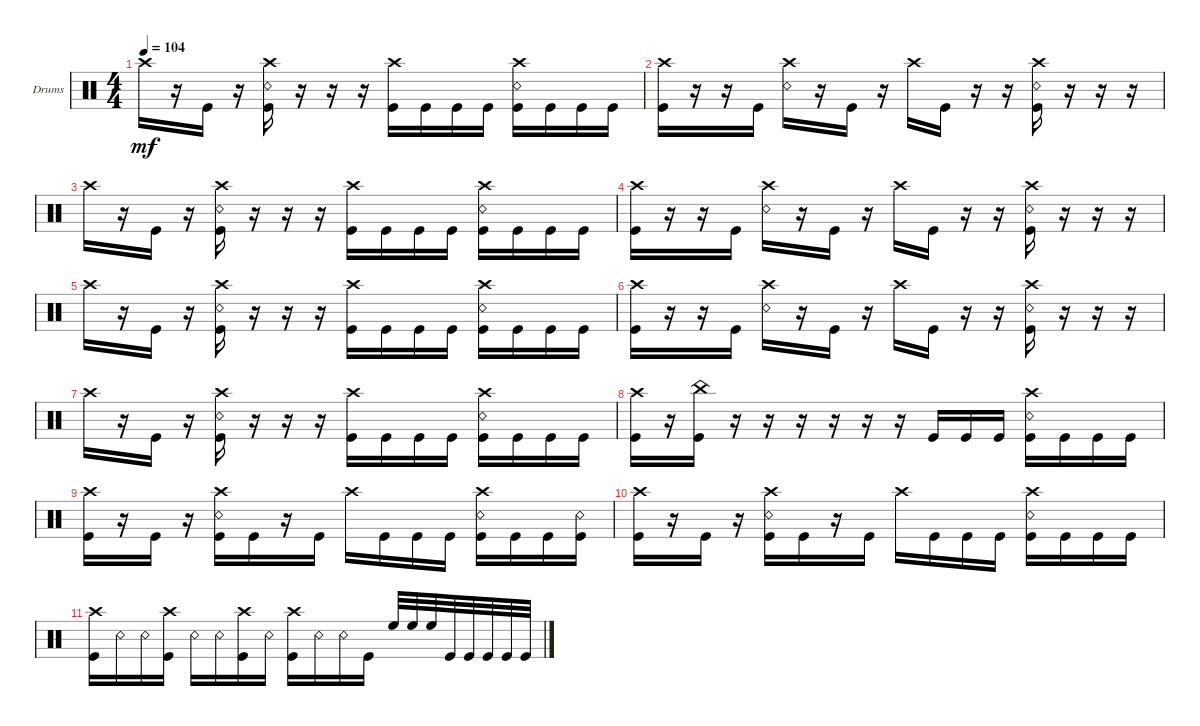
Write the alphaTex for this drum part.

\defaultSystemsLayout 4
\bracketExtendMode groupsimilarinstruments
\firstSystemTrackNameOrientation horizontal
\otherSystemsTrackNameOrientation horizontal
\track ("Drums" "Drums") {instrument percussion}
\staff {score}
\articulation defaults
\ts (4 4)
\tempo 104
\clef neutral
\ks c "Crash high (hit)".16{dy mf}
r.16 "Kick (hit)".16 r.16 ("Kick (hit)" "Crash high (hit)" "Snare (rim shot)").16 r.16 r.16 r.16 ("Kick (hit)" "Crash high (hit)").16 "Kick (hit)".16 "Kick (hit)".16 "Kick (hit)".16 ("Kick (hit)" "Crash high (hit)" "Snare (rim shot)").16 "Kick (hit)".16 "Kick (hit)".16 "Kick (hit)".16 |
("Kick (hit)" "Crash high (hit)").16 r.16 r.16 "Kick (hit)".16 ("Crash high (hit)" "Snare (rim shot)").16 r.16 "Kick (hit)".16 r.16 "Crash high (hit)".16 "Kick (hit)".16 r.16 r.16 ("Kick (hit)" "Crash high (hit)" "Snare (rim shot)").16 r.16 r.16 r.16 |
"Crash high (hit)".16 r.16 "Kick (hit)".16 r.16 ("Kick (hit)" "Crash high (hit)" "Snare (rim shot)").16 r.16 r.16 r.16 ("Kick (hit)" "Crash high (hit)").16 "Kick (hit)".16 "Kick (hit)".16 "Kick (hit)".16 ("Kick (hit)" "Crash high (hit)" "Snare (rim shot)").16 "Kick (hit)".16 "Kick (hit)".16 "Kick (hit)".16 |
("Kick (hit)" "Crash high (hit)").16 r.16 r.16 "Kick (hit)".16 ("Crash high (hit)" "Snare (rim shot)").16 r.16 "Kick (hit)".16 r.16 "Crash high (hit)".16 "Kick (hit)".16 r.16 r.16 ("Kick (hit)" "Crash high (hit)" "Snare (rim shot)").16 r.16 r.16 r.16 |
"Crash high (hit)".16 r.16 "Kick (hit)".16 r.16 ("Kick (hit)" "Crash high (hit)" "Snare (rim shot)").16 r.16 r.16 r.16 ("Kick (hit)" "Crash high (hit)").16 "Kick (hit)".16 "Kick (hit)".16 "Kick (hit)".16 ("Kick (hit)" "Crash high (hit)" "Snare (rim shot)").16 "Kick (hit)".16 "Kick (hit)".16 "Kick (hit)".16 |
("Kick (hit)" "Crash high (hit)").16 r.16 r.16 "Kick (hit)".16 ("Crash high (hit)" "Snare (rim shot)").16 r.16 "Kick (hit)".16 r.16 "Crash high (hit)".16 "Kick (hit)".16 r.16 r.16 ("Kick (hit)" "Crash high (hit)" "Snare (rim shot)").16 r.16 r.16 r.16 |
"Crash high (hit)".16 r.16 "Kick (hit)".16 r.16 ("Kick (hit)" "Crash high (hit)" "Snare (rim shot)").16 r.16 r.16 r.16 ("Kick (hit)" "Crash high (hit)").16 "Kick (hit)".16 "Kick (hit)".16 "Kick (hit)".16 ("Kick (hit)" "Crash high (hit)" "Snare (rim shot)").16 "Kick (hit)".16 "Kick (hit)".16 "Kick (hit)".16 |
("Crash high (hit)" "Kick (hit)").16 r.16 ("Kick (hit)" "China (hit)").16 r.16 r.16 r.16 r.16 r.16 r.16 "Kick (hit)".16 "Kick (hit)".16 "Kick (hit)".16 ("Crash high (hit)" "Kick (hit)" "Snare (rim shot)").16 "Kick (hit)".16 "Kick (hit)".16 "Kick (hit)".16 |
("Crash high (hit)" "Kick (hit)").16 r.16 "Kick (hit)".16 r.16 ("Crash high (hit)" "Snare (rim shot)" "Kick (hit)").16 "Kick (hit)".16 r.16 "Kick (hit)".16 "Crash high (hit)".16 "Kick (hit)".16 "Kick (hit)".16 "Kick (hit)".16 ("Crash high (hit)" "Kick (hit)" "Snare (rim shot)").16 "Kick (hit)".16 "Kick (hit)".16 ("Kick (hit)" "Snare (rim shot)").16 |
("Crash high (hit)" "Kick (hit)").16 r.16 "Kick (hit)".16 r.16 ("Crash high (hit)" "Snare (rim shot)" "Kick (hit)").16 "Kick (hit)".16 r.16 "Kick (hit)".16 "Crash high (hit)".16 "Kick (hit)".16 "Kick (hit)".16 "Kick (hit)".16 ("Crash high (hit)" "Kick (hit)" "Snare (rim shot)").16 "Kick (hit)".16 "Kick (hit)".16 "Kick (hit)".16 |
("Crash high (hit)" "Kick (hit)").16 "Snare (rim shot)".16 "Snare (rim shot)".16 ("Crash high (hit)" "Kick (hit)").16 "Snare (rim shot)".16 "Snare (rim shot)".16 ("Crash high (hit)" "Kick (hit)").16 "Snare (rim shot)".16 ("Crash high (hit)" "Kick (hit)").16 "Snare (rim shot)".16 "Snare (rim shot)".16 "Kick (hit)".16 "High Floor Tom (hit)".32 "High Floor Tom (hit)".32 "High Floor Tom (hit)".32 "Kick (hit)".32 "Kick (hit)".32 "Kick (hit)".32 "Kick (hit)".32 "Kick (hit)".32
